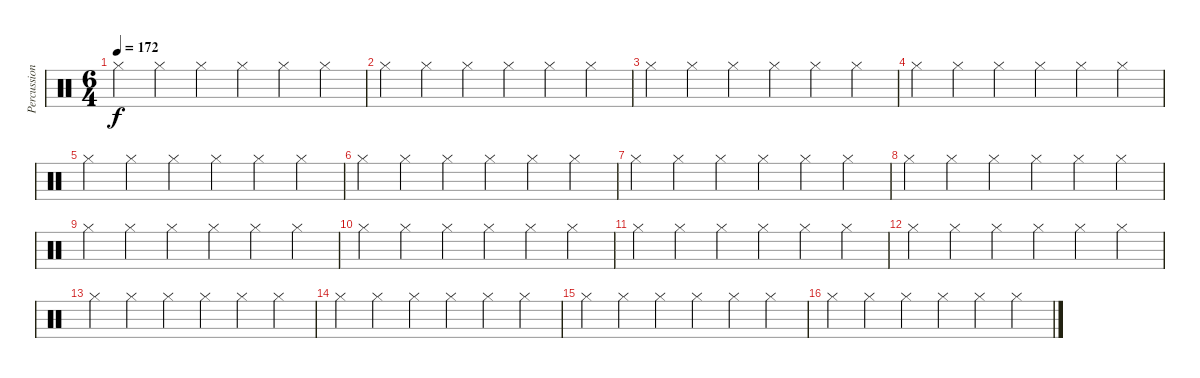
\track ("Percussion" "Percussion") {instrument percussion}
\staff {score}
\articulation defaults
\ts (6 4)
\tempo 172
\clef neutral
\ks c "Hi-Hat (closed)".4{dy f} "Hi-Hat (closed)".4 "Hi-Hat (closed)".4 "Hi-Hat (closed)".4 "Hi-Hat (closed)".4 "Hi-Hat (closed)".4
|
"Hi-Hat (closed)".4 "Hi-Hat (closed)".4 "Hi-Hat (closed)".4 "Hi-Hat (closed)".4 "Hi-Hat (closed)".4 "Hi-Hat (closed)".4 |
"Hi-Hat (closed)".4 "Hi-Hat (closed)".4 "Hi-Hat (closed)".4 "Hi-Hat (closed)".4 "Hi-Hat (closed)".4 "Hi-Hat (closed)".4 |
"Hi-Hat (closed)".4 "Hi-Hat (closed)".4 "Hi-Hat (closed)".4 "Hi-Hat (closed)".4 "Hi-Hat (closed)".4 "Hi-Hat (closed)".4 |
"Hi-Hat (closed)".4 "Hi-Hat (closed)".4 "Hi-Hat (closed)".4 "Hi-Hat (closed)".4 "Hi-Hat (closed)".4 "Hi-Hat (closed)".4 |
"Hi-Hat (closed)".4 "Hi-Hat (closed)".4 "Hi-Hat (closed)".4 "Hi-Hat (closed)".4 "Hi-Hat (closed)".4 "Hi-Hat (closed)".4 |
"Hi-Hat (closed)".4 "Hi-Hat (closed)".4 "Hi-Hat (closed)".4 "Hi-Hat (closed)".4 "Hi-Hat (closed)".4 "Hi-Hat (closed)".4 |
"Hi-Hat (closed)".4 "Hi-Hat (closed)".4 "Hi-Hat (closed)".4 "Hi-Hat (closed)".4 "Hi-Hat (closed)".4 "Hi-Hat (closed)".4 |
"Hi-Hat (closed)".4 "Hi-Hat (closed)".4 "Hi-Hat (closed)".4 "Hi-Hat (closed)".4 "Hi-Hat (closed)".4 "Hi-Hat (closed)".4 |
"Hi-Hat (closed)".4 "Hi-Hat (closed)".4 "Hi-Hat (closed)".4 "Hi-Hat (closed)".4 "Hi-Hat (closed)".4 "Hi-Hat (closed)".4 |
"Hi-Hat (closed)".4 "Hi-Hat (closed)".4 "Hi-Hat (closed)".4 "Hi-Hat (closed)".4 "Hi-Hat (closed)".4 "Hi-Hat (closed)".4 |
"Hi-Hat (closed)".4 "Hi-Hat (closed)".4 "Hi-Hat (closed)".4 "Hi-Hat (closed)".4 "Hi-Hat (closed)".4 "Hi-Hat (closed)".4 |
"Hi-Hat (closed)".4 "Hi-Hat (closed)".4 "Hi-Hat (closed)".4 "Hi-Hat (closed)".4 "Hi-Hat (closed)".4 "Hi-Hat (closed)".4 |
"Hi-Hat (closed)".4 "Hi-Hat (closed)".4 "Hi-Hat (closed)".4 "Hi-Hat (closed)".4 "Hi-Hat (closed)".4 "Hi-Hat (closed)".4 |
"Hi-Hat (closed)".4 "Hi-Hat (closed)".4 "Hi-Hat (closed)".4 "Hi-Hat (closed)".4 "Hi-Hat (closed)".4 "Hi-Hat (closed)".4 |
"Hi-Hat (closed)".4 "Hi-Hat (closed)".4 "Hi-Hat (closed)".4 "Hi-Hat (closed)".4 "Hi-Hat (closed)".4 "Hi-Hat (closed)".4
